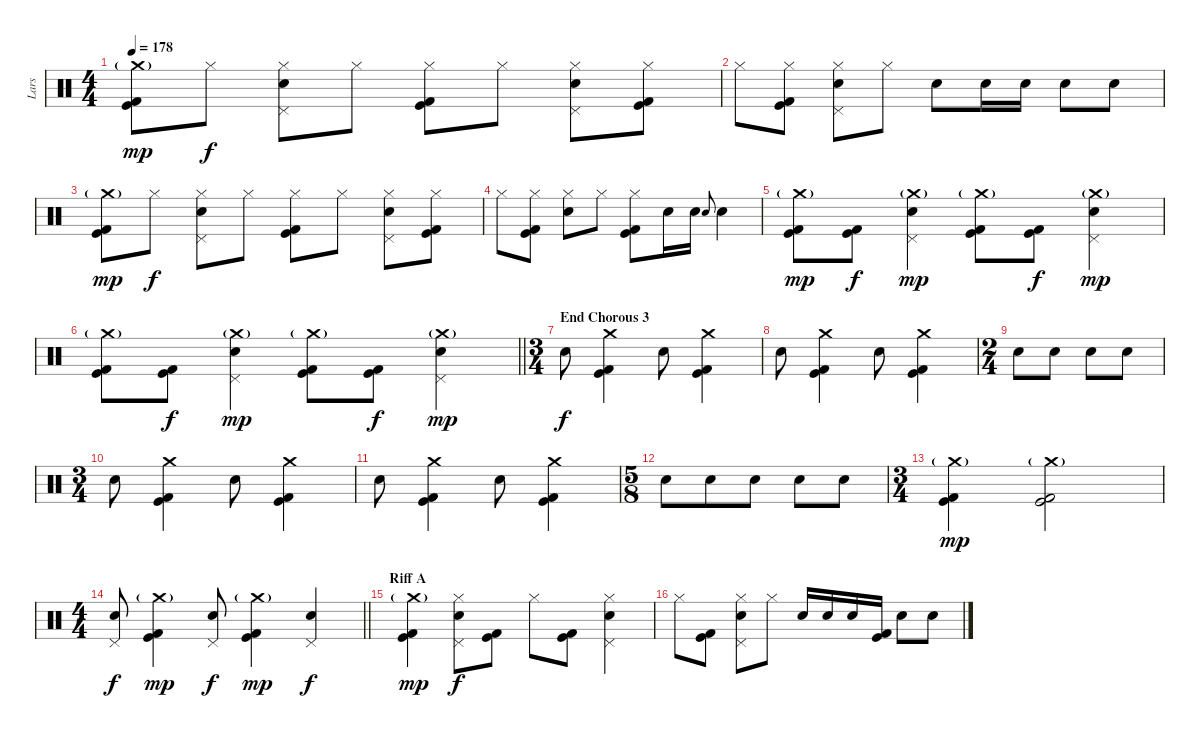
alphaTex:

\track ("Lars" "Lars") {instrument percussion}
\staff {score}
\articulation defaults
\ts (4 4)
\tempo 178
\clef neutral
\ks c
("Crash medium (hit)"{g} "Kick (hit)" "Kick (hit) 2").8{dy mp} "Hi-Hat (closed)".8{dy f} ("Hi-Hat (closed)" "Pedal Hi-Hat (hit)" "Electric Snare (hit)").8 "Hi-Hat (closed)".8 ("Hi-Hat (closed)" "Kick (hit)" "Kick (hit) 2").8 "Hi-Hat (closed)".8 ("Hi-Hat (closed)" "Pedal Hi-Hat (hit)" "Electric Snare (hit)").8 ("Hi-Hat (closed)" "Kick (hit)" "Kick (hit) 2").8 |
"Hi-Hat (closed)".8 ("Hi-Hat (closed)" "Kick (hit)" "Kick (hit) 2").8 ("Hi-Hat (closed)" "Pedal Hi-Hat (hit)" "Electric Snare (hit)").8 "Hi-Hat (closed)".8 "Electric Snare (hit)".8 "Electric Snare (hit)".16 "Electric Snare (hit)".16 "Electric Snare (hit)".8 "Electric Snare (hit)".8 |
("Crash medium (hit)"{g} "Kick (hit)" "Kick (hit) 2").8{dy mp} "Hi-Hat (closed)".8{dy f} ("Hi-Hat (closed)" "Pedal Hi-Hat (hit)" "Electric Snare (hit)").8 "Hi-Hat (closed)".8 ("Hi-Hat (closed)" "Kick (hit)" "Kick (hit) 2").8 "Hi-Hat (closed)".8 ("Hi-Hat (closed)" "Pedal Hi-Hat (hit)" "Electric Snare (hit)").8 ("Hi-Hat (closed)" "Kick (hit)" "Kick (hit) 2").8 |
"Hi-Hat (closed)".8 ("Hi-Hat (closed)" "Kick (hit)" "Kick (hit) 2").8 ("Hi-Hat (closed)" "Electric Snare (hit)").8 "Hi-Hat (closed)".8 ("Hi-Hat (closed)" "Kick (hit)" "Kick (hit) 2").8 "Electric Snare (hit)".16 "Electric Snare (hit)".16 "Electric Snare (hit)".8{gr onbeat} "Electric Snare (hit)".4 |
("Crash medium (hit)"{g} "Kick (hit)" "Kick (hit) 2").8{dy mp} ("Kick (hit)" "Kick (hit) 2").8{dy f} ("Crash medium (hit)"{g} "Pedal Hi-Hat (hit)" "Electric Snare (hit)").4{dy mp} ("Crash medium (hit)"{g} "Kick (hit)" "Kick (hit) 2").8 ("Kick (hit)" "Kick (hit) 2").8{dy f} ("Crash medium (hit)"{g} "Pedal Hi-Hat (hit)" "Electric Snare (hit)").4{dy mp} |
\barLineRight lightlight
("Crash medium (hit)"{g} "Kick (hit)" "Kick (hit) 2").8 ("Kick (hit)" "Kick (hit) 2").8{dy f} ("Crash medium (hit)"{g} "Pedal Hi-Hat (hit)" "Electric Snare (hit)").4{dy mp} ("Crash medium (hit)"{g} "Kick (hit)" "Kick (hit) 2").8 ("Kick (hit)" "Kick (hit) 2").8{dy f} ("Crash medium (hit)"{g} "Pedal Hi-Hat (hit)" "Electric Snare (hit)").4{dy mp} |
\ts (3 4)
\section ("" "End Chorous 3")
"Electric Snare (hit)".8{dy f} ("Crash medium (hit)" "Kick (hit)" "Kick (hit) 2").4 "Electric Snare (hit)".8 ("Crash medium (hit)" "Kick (hit)" "Kick (hit) 2").4 |
"Electric Snare (hit)".8 ("Crash medium (hit)" "Kick (hit)" "Kick (hit) 2").4 "Electric Snare (hit)".8 ("Crash medium (hit)" "Kick (hit)" "Kick (hit) 2").4 |
\ts (2 4)
"Electric Snare (hit)".8 "Electric Snare (hit)".8 "Electric Snare (hit)".8 "Electric Snare (hit)".8 |
\ts (3 4)
"Electric Snare (hit)".8 ("Crash medium (hit)" "Kick (hit)" "Kick (hit) 2").4 "Electric Snare (hit)".8 ("Crash medium (hit)" "Kick (hit)" "Kick (hit) 2").4 |
"Electric Snare (hit)".8 ("Crash medium (hit)" "Kick (hit)" "Kick (hit) 2").4 "Electric Snare (hit)".8 ("Crash medium (hit)" "Kick (hit)" "Kick (hit) 2").4 |
\ts (5 8)
"Electric Snare (hit)".8 "Electric Snare (hit)".8 "Electric Snare (hit)".8 "Electric Snare (hit)".8 "Electric Snare (hit)".8 |
\ts (3 4)
("Crash medium (hit)"{g} "Kick (hit)" "Kick (hit) 2").4{dy mp} ("Crash medium (hit)"{g} "Kick (hit)" "Kick (hit) 2").2 |
\ts (4 4)
\barLineRight lightlight
("Pedal Hi-Hat (hit)" "Electric Snare (hit)").8{dy f} ("Crash medium (hit)"{g} "Kick (hit)" "Kick (hit) 2").4{dy mp} ("Pedal Hi-Hat (hit)" "Electric Snare (hit)").8{dy f} ("Crash medium (hit)"{g} "Kick (hit)" "Kick (hit) 2").4{dy mp} ("Pedal Hi-Hat (hit)" "Electric Snare (hit)").4{dy f} |
\section ("" "Riff A")
("Crash medium (hit)"{g} "Kick (hit)" "Kick (hit) 2").4{dy mp} ("Hi-Hat (closed)" "Pedal Hi-Hat (hit)" "Electric Snare (hit)").8{dy f} ("Kick (hit)" "Kick (hit) 2").8 "Hi-Hat (closed)".8 ("Kick (hit)" "Kick (hit) 2").8 ("Hi-Hat (closed)" "Pedal Hi-Hat (hit)" "Electric Snare (hit)").4 |
"Hi-Hat (closed)".8 ("Kick (hit)" "Kick (hit) 2").8 ("Hi-Hat (closed)" "Pedal Hi-Hat (hit)" "Electric Snare (hit)").8 "Hi-Hat (closed)".8 "Electric Snare (hit)".16 "Electric Snare (hit)".16 "Electric Snare (hit)".16 ("Kick (hit)" "Kick (hit) 2").16 "Electric Snare (hit)".8 "Electric Snare (hit)".8
